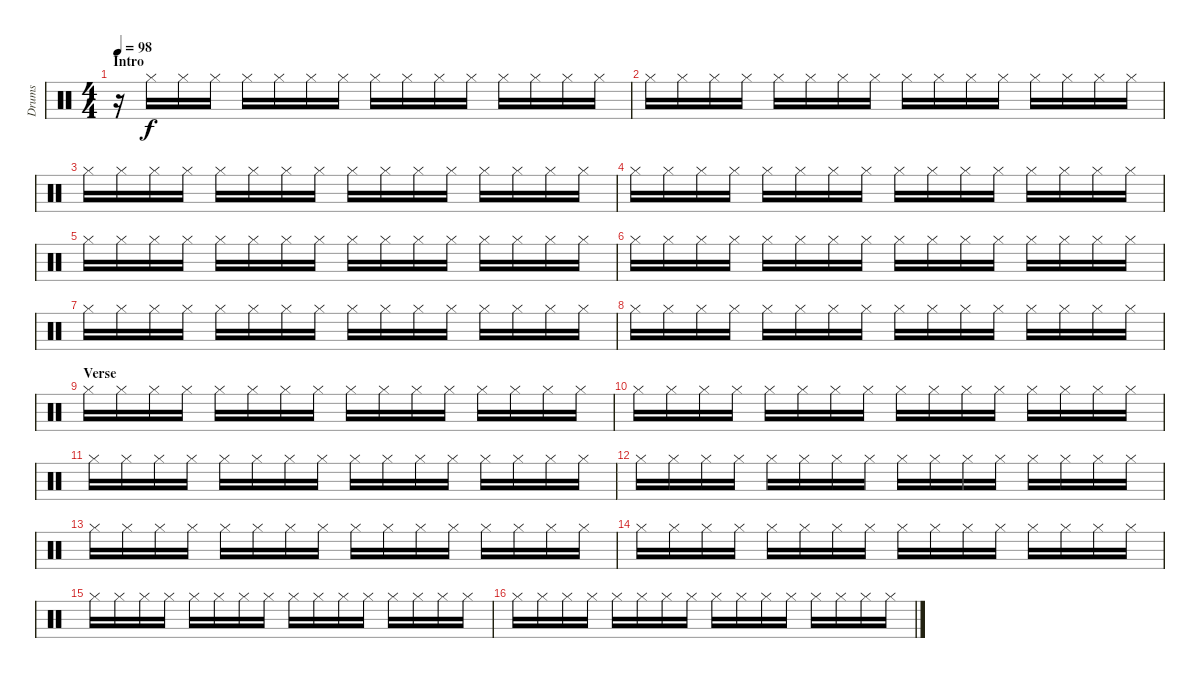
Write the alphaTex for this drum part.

\track ("Drums" "Drums") {instrument percussion}
\staff {score}
\articulation defaults
\ts (4 4)
\section ("" "Intro")
\tempo 98
\clef neutral
\ks c
r.16{dy f} "Hi-Hat (closed)".16 "Hi-Hat (closed)".16 "Hi-Hat (closed)".16 "Hi-Hat (closed)".16 "Hi-Hat (closed)".16 "Hi-Hat (closed)".16 "Hi-Hat (closed)".16 "Hi-Hat (closed)".16 "Hi-Hat (closed)".16 "Hi-Hat (closed)".16 "Hi-Hat (closed)".16 "Hi-Hat (closed)".16 "Hi-Hat (closed)".16 "Hi-Hat (closed)".16 "Hi-Hat (closed)".16 |
"Hi-Hat (closed)".16 "Hi-Hat (closed)".16 "Hi-Hat (closed)".16 "Hi-Hat (closed)".16 "Hi-Hat (closed)".16 "Hi-Hat (closed)".16 "Hi-Hat (closed)".16 "Hi-Hat (closed)".16 "Hi-Hat (closed)".16 "Hi-Hat (closed)".16 "Hi-Hat (closed)".16 "Hi-Hat (closed)".16 "Hi-Hat (closed)".16 "Hi-Hat (closed)".16 "Hi-Hat (closed)".16 "Hi-Hat (closed)".16 |
"Hi-Hat (closed)".16 "Hi-Hat (closed)".16 "Hi-Hat (closed)".16 "Hi-Hat (closed)".16 "Hi-Hat (closed)".16 "Hi-Hat (closed)".16 "Hi-Hat (closed)".16 "Hi-Hat (closed)".16 "Hi-Hat (closed)".16 "Hi-Hat (closed)".16 "Hi-Hat (closed)".16 "Hi-Hat (closed)".16 "Hi-Hat (closed)".16 "Hi-Hat (closed)".16 "Hi-Hat (closed)".16 "Hi-Hat (closed)".16 |
"Hi-Hat (closed)".16 "Hi-Hat (closed)".16 "Hi-Hat (closed)".16 "Hi-Hat (closed)".16 "Hi-Hat (closed)".16 "Hi-Hat (closed)".16 "Hi-Hat (closed)".16 "Hi-Hat (closed)".16 "Hi-Hat (closed)".16 "Hi-Hat (closed)".16 "Hi-Hat (closed)".16 "Hi-Hat (closed)".16 "Hi-Hat (closed)".16 "Hi-Hat (closed)".16 "Hi-Hat (closed)".16 "Hi-Hat (closed)".16 |
"Hi-Hat (closed)".16 "Hi-Hat (closed)".16 "Hi-Hat (closed)".16 "Hi-Hat (closed)".16 "Hi-Hat (closed)".16 "Hi-Hat (closed)".16 "Hi-Hat (closed)".16 "Hi-Hat (closed)".16 "Hi-Hat (closed)".16 "Hi-Hat (closed)".16 "Hi-Hat (closed)".16 "Hi-Hat (closed)".16 "Hi-Hat (closed)".16 "Hi-Hat (closed)".16 "Hi-Hat (closed)".16 "Hi-Hat (closed)".16 |
"Hi-Hat (closed)".16 "Hi-Hat (closed)".16 "Hi-Hat (closed)".16 "Hi-Hat (closed)".16 "Hi-Hat (closed)".16 "Hi-Hat (closed)".16 "Hi-Hat (closed)".16 "Hi-Hat (closed)".16 "Hi-Hat (closed)".16 "Hi-Hat (closed)".16 "Hi-Hat (closed)".16 "Hi-Hat (closed)".16 "Hi-Hat (closed)".16 "Hi-Hat (closed)".16 "Hi-Hat (closed)".16 "Hi-Hat (closed)".16 |
"Hi-Hat (closed)".16 "Hi-Hat (closed)".16 "Hi-Hat (closed)".16 "Hi-Hat (closed)".16 "Hi-Hat (closed)".16 "Hi-Hat (closed)".16 "Hi-Hat (closed)".16 "Hi-Hat (closed)".16 "Hi-Hat (closed)".16 "Hi-Hat (closed)".16 "Hi-Hat (closed)".16 "Hi-Hat (closed)".16 "Hi-Hat (closed)".16 "Hi-Hat (closed)".16 "Hi-Hat (closed)".16 "Hi-Hat (closed)".16 |
"Hi-Hat (closed)".16 "Hi-Hat (closed)".16 "Hi-Hat (closed)".16 "Hi-Hat (closed)".16 "Hi-Hat (closed)".16 "Hi-Hat (closed)".16 "Hi-Hat (closed)".16 "Hi-Hat (closed)".16 "Hi-Hat (closed)".16 "Hi-Hat (closed)".16 "Hi-Hat (closed)".16 "Hi-Hat (closed)".16 "Hi-Hat (closed)".16 "Hi-Hat (closed)".16 "Hi-Hat (closed)".16 "Hi-Hat (closed)".16 |
\section ("" "Verse")
"Hi-Hat (closed)".16 "Hi-Hat (closed)".16 "Hi-Hat (closed)".16 "Hi-Hat (closed)".16 "Hi-Hat (closed)".16 "Hi-Hat (closed)".16 "Hi-Hat (closed)".16 "Hi-Hat (closed)".16 "Hi-Hat (closed)".16 "Hi-Hat (closed)".16 "Hi-Hat (closed)".16 "Hi-Hat (closed)".16 "Hi-Hat (closed)".16 "Hi-Hat (closed)".16 "Hi-Hat (closed)".16 "Hi-Hat (closed)".16 |
"Hi-Hat (closed)".16 "Hi-Hat (closed)".16 "Hi-Hat (closed)".16 "Hi-Hat (closed)".16 "Hi-Hat (closed)".16 "Hi-Hat (closed)".16 "Hi-Hat (closed)".16 "Hi-Hat (closed)".16 "Hi-Hat (closed)".16 "Hi-Hat (closed)".16 "Hi-Hat (closed)".16 "Hi-Hat (closed)".16 "Hi-Hat (closed)".16 "Hi-Hat (closed)".16 "Hi-Hat (closed)".16 "Hi-Hat (closed)".16 |
"Hi-Hat (closed)".16 "Hi-Hat (closed)".16 "Hi-Hat (closed)".16 "Hi-Hat (closed)".16 "Hi-Hat (closed)".16 "Hi-Hat (closed)".16 "Hi-Hat (closed)".16 "Hi-Hat (closed)".16 "Hi-Hat (closed)".16 "Hi-Hat (closed)".16 "Hi-Hat (closed)".16 "Hi-Hat (closed)".16 "Hi-Hat (closed)".16 "Hi-Hat (closed)".16 "Hi-Hat (closed)".16 "Hi-Hat (closed)".16 |
"Hi-Hat (closed)".16 "Hi-Hat (closed)".16 "Hi-Hat (closed)".16 "Hi-Hat (closed)".16 "Hi-Hat (closed)".16 "Hi-Hat (closed)".16 "Hi-Hat (closed)".16 "Hi-Hat (closed)".16 "Hi-Hat (closed)".16 "Hi-Hat (closed)".16 "Hi-Hat (closed)".16 "Hi-Hat (closed)".16 "Hi-Hat (closed)".16 "Hi-Hat (closed)".16 "Hi-Hat (closed)".16 "Hi-Hat (closed)".16 |
"Hi-Hat (closed)".16 "Hi-Hat (closed)".16 "Hi-Hat (closed)".16 "Hi-Hat (closed)".16 "Hi-Hat (closed)".16 "Hi-Hat (closed)".16 "Hi-Hat (closed)".16 "Hi-Hat (closed)".16 "Hi-Hat (closed)".16 "Hi-Hat (closed)".16 "Hi-Hat (closed)".16 "Hi-Hat (closed)".16 "Hi-Hat (closed)".16 "Hi-Hat (closed)".16 "Hi-Hat (closed)".16 "Hi-Hat (closed)".16 |
"Hi-Hat (closed)".16 "Hi-Hat (closed)".16 "Hi-Hat (closed)".16 "Hi-Hat (closed)".16 "Hi-Hat (closed)".16 "Hi-Hat (closed)".16 "Hi-Hat (closed)".16 "Hi-Hat (closed)".16 "Hi-Hat (closed)".16 "Hi-Hat (closed)".16 "Hi-Hat (closed)".16 "Hi-Hat (closed)".16 "Hi-Hat (closed)".16 "Hi-Hat (closed)".16 "Hi-Hat (closed)".16 "Hi-Hat (closed)".16 |
"Hi-Hat (closed)".16 "Hi-Hat (closed)".16 "Hi-Hat (closed)".16 "Hi-Hat (closed)".16 "Hi-Hat (closed)".16 "Hi-Hat (closed)".16 "Hi-Hat (closed)".16 "Hi-Hat (closed)".16 "Hi-Hat (closed)".16 "Hi-Hat (closed)".16 "Hi-Hat (closed)".16 "Hi-Hat (closed)".16 "Hi-Hat (closed)".16 "Hi-Hat (closed)".16 "Hi-Hat (closed)".16 "Hi-Hat (closed)".16 |
"Hi-Hat (closed)".16 "Hi-Hat (closed)".16 "Hi-Hat (closed)".16 "Hi-Hat (closed)".16 "Hi-Hat (closed)".16 "Hi-Hat (closed)".16 "Hi-Hat (closed)".16 "Hi-Hat (closed)".16 "Hi-Hat (closed)".16 "Hi-Hat (closed)".16 "Hi-Hat (closed)".16 "Hi-Hat (closed)".16 "Hi-Hat (closed)".16 "Hi-Hat (closed)".16 "Hi-Hat (closed)".16 "Hi-Hat (closed)".16
